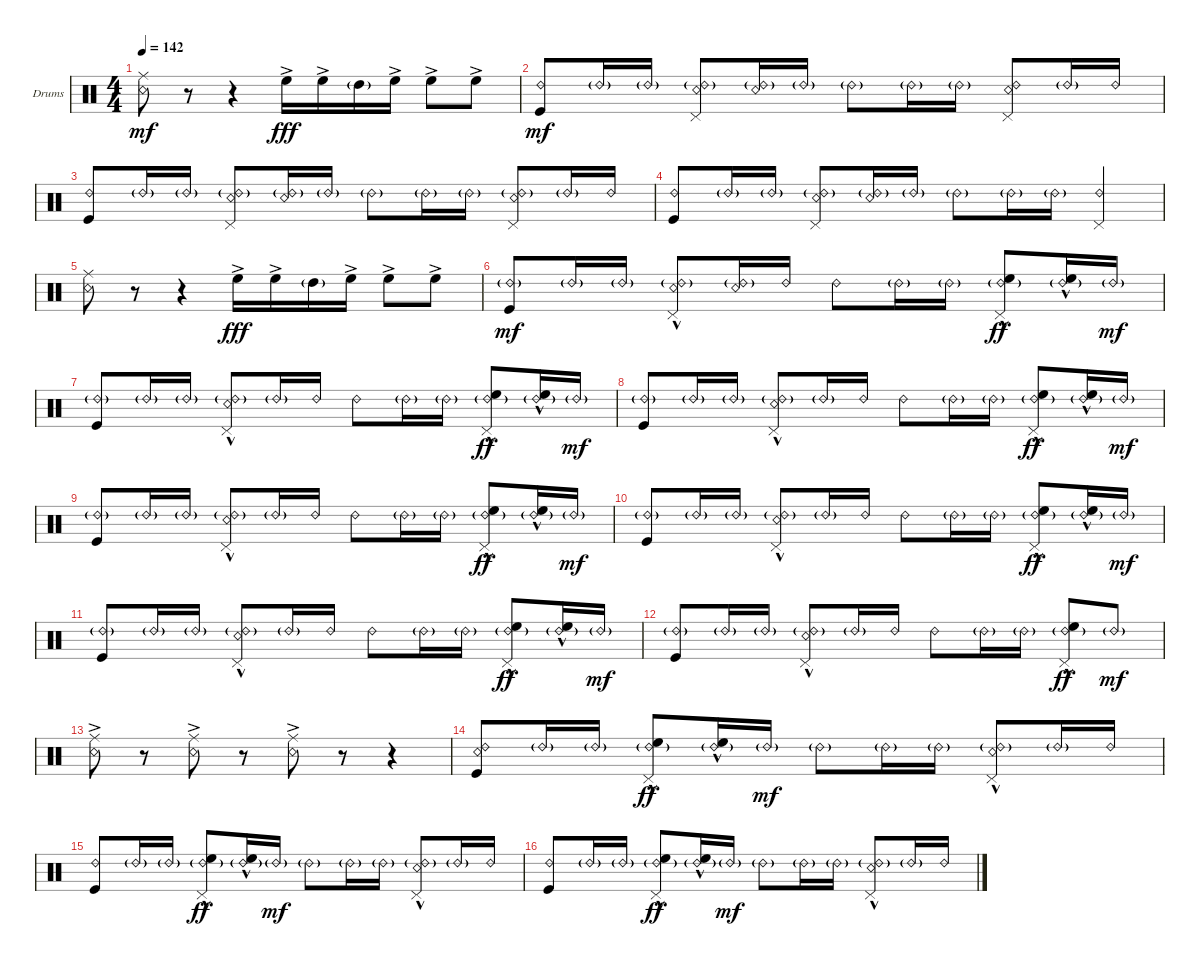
\defaultSystemsLayout 4
\bracketExtendMode groupsimilarinstruments
\firstSystemTrackNameOrientation horizontal
\otherSystemsTrackNameOrientation horizontal
\track ("Drums" "Drums") {instrument percussion}
\staff {score}
\articulation defaults
\ts (4 4)
\tempo 142
\clef neutral
\scale
0.333333
\ks c
("Snare (rim shot)" "Ride (middle)").8{dy mf} r.8 r.4 "High Floor Tom (hit)"{ac}.16{dy fff} "High Floor Tom (hit)"{ac}.16 "High Tom (hit)"{g}.16 "High Floor Tom (hit)"{ac}.16 "High Floor Tom (hit)"{ac}.8 "High Floor Tom (hit)"{ac}.8 |
\scale
0.333333 ("Ride (bell) 2" "Kick (hit)").8{dy mf} "Ride (bell) 2"{g}.16 "Ride (bell) 2"{g}.16 ("Ride (bell) 2"{g} "Snare (rim shot)" "Pedal Hi-Hat (hit)").8 ("Ride (bell) 2"{g} "Snare (rim shot)").16 "Ride (bell) 2"{g}.16 "Ride (bell) 2"{g}.8 "Ride (bell) 2"{g}.16 "Ride (bell) 2"{g}.16 ("Ride (bell) 2" "Snare (rim shot)" "Pedal Hi-Hat (hit)").8 "Ride (bell) 2"{g}.16 "Ride (bell) 2".16 |
\scale
0.333333 ("Ride (bell) 2" "Kick (hit)").8 "Ride (bell) 2"{g}.16 "Ride (bell) 2"{g}.16 ("Ride (bell) 2"{g} "Snare (rim shot)" "Pedal Hi-Hat (hit)").8 ("Ride (bell) 2"{g} "Snare (rim shot)").16 "Ride (bell) 2"{g}.16 "Ride (bell) 2"{g}.8 "Ride (bell) 2"{g}.16 "Ride (bell) 2"{g}.16 ("Ride (bell) 2"{g} "Snare (rim shot)" "Pedal Hi-Hat (hit)").8 "Ride (bell) 2"{g}.16 "Ride (bell) 2".16 |
\scale
0.333333 ("Ride (bell) 2" "Kick (hit)").8 "Ride (bell) 2"{g}.16 "Ride (bell) 2"{g}.16 ("Ride (bell) 2"{g} "Snare (rim shot)" "Pedal Hi-Hat (hit)").8 ("Ride (bell) 2"{g} "Snare (rim shot)").16 "Ride (bell) 2"{g}.16 "Ride (bell) 2"{g}.8 "Ride (bell) 2"{g}.16 "Ride (bell) 2"{g}.16 ("Ride (bell) 2" "Pedal Hi-Hat (hit)").4 |
\scale
0.333333 ("Snare (rim shot)" "Ride (middle)").8 r.8 r.4 "High Floor Tom (hit)"{ac}.16{dy fff} "High Floor Tom (hit)"{ac}.16 "High Tom (hit)"{g}.16 "High Floor Tom (hit)"{ac}.16 "High Floor Tom (hit)"{ac}.8 "High Floor Tom (hit)"{ac}.8 |
\scale
0.333333 ("Ride (bell) 2"{g} "Kick (hit)").8{dy mf} "Ride (bell) 2"{g}.16 "Ride (bell) 2"{g}.16 ("Ride (bell) 2"{g} "Snare (rim shot)"{hac} "Pedal Hi-Hat (hit)").8 ("Ride (bell) 2"{g} "Snare (rim shot)").16 "Ride (bell) 2".16 "Ride (bell) 2".8 "Ride (bell) 2"{g}.16 "Ride (bell) 2"{g}.16 ("Ride (bell) 2"{g} "High Floor Tom (hit)"{hac} "Pedal Hi-Hat (hit)").8{dy ff} ("Ride (bell) 2"{g} "High Floor Tom (hit)"{hac}).16 "Ride (bell) 2"{g}.16{dy mf} |
\scale
0.333333 ("Ride (bell) 2"{g} "Kick (hit)").8 "Ride (bell) 2"{g}.16 "Ride (bell) 2"{g}.16 ("Ride (bell) 2"{g} "Snare (rim shot)"{hac} "Pedal Hi-Hat (hit)").8 "Ride (bell) 2"{g}.16 "Ride (bell) 2".16 "Ride (bell) 2".8 "Ride (bell) 2"{g}.16 "Ride (bell) 2"{g}.16 ("Ride (bell) 2"{g} "High Floor Tom (hit)"{hac} "Pedal Hi-Hat (hit)").8{dy ff} ("Ride (bell) 2"{g} "High Floor Tom (hit)"{hac}).16 "Ride (bell) 2"{g}.16{dy mf} |
\scale
0.333333 ("Ride (bell) 2"{g} "Kick (hit)").8 "Ride (bell) 2"{g}.16 "Ride (bell) 2"{g}.16 ("Ride (bell) 2"{g} "Snare (rim shot)"{hac} "Pedal Hi-Hat (hit)").8 "Ride (bell) 2"{g}.16 "Ride (bell) 2".16 "Ride (bell) 2".8 "Ride (bell) 2"{g}.16 "Ride (bell) 2"{g}.16 ("Ride (bell) 2"{g} "High Floor Tom (hit)"{hac} "Pedal Hi-Hat (hit)").8{dy ff} ("Ride (bell) 2"{g} "High Floor Tom (hit)"{hac}).16 "Ride (bell) 2"{g}.16{dy mf} |
\scale
0.333333 ("Ride (bell) 2"{g} "Kick (hit)").8 "Ride (bell) 2"{g}.16 "Ride (bell) 2"{g}.16 ("Ride (bell) 2"{g} "Snare (rim shot)"{hac} "Pedal Hi-Hat (hit)").8 "Ride (bell) 2"{g}.16 "Ride (bell) 2".16 "Ride (bell) 2".8 "Ride (bell) 2"{g}.16 "Ride (bell) 2"{g}.16 ("Ride (bell) 2"{g} "High Floor Tom (hit)"{hac} "Pedal Hi-Hat (hit)").8{dy ff} ("Ride (bell) 2"{g} "High Floor Tom (hit)"{hac}).16 "Ride (bell) 2"{g}.16{dy mf} |
\scale
0.333333 ("Ride (bell) 2"{g} "Kick (hit)").8 "Ride (bell) 2"{g}.16 "Ride (bell) 2"{g}.16 ("Ride (bell) 2"{g} "Snare (rim shot)"{hac} "Pedal Hi-Hat (hit)").8 "Ride (bell) 2"{g}.16 "Ride (bell) 2".16 "Ride (bell) 2".8 "Ride (bell) 2"{g}.16 "Ride (bell) 2"{g}.16 ("Ride (bell) 2"{g} "High Floor Tom (hit)"{hac} "Pedal Hi-Hat (hit)").8{dy ff} ("Ride (bell) 2"{g} "High Floor Tom (hit)"{hac}).16 "Ride (bell) 2"{g}.16{dy mf} |
\scale
0.333333 ("Ride (bell) 2"{g} "Kick (hit)").8 "Ride (bell) 2"{g}.16 "Ride (bell) 2"{g}.16 ("Ride (bell) 2"{g} "Snare (rim shot)"{hac} "Pedal Hi-Hat (hit)").8 "Ride (bell) 2"{g}.16 "Ride (bell) 2".16 "Ride (bell) 2".8 "Ride (bell) 2"{g}.16 "Ride (bell) 2"{g}.16 ("Ride (bell) 2"{g} "High Floor Tom (hit)"{hac} "Pedal Hi-Hat (hit)").8{dy ff} ("Ride (bell) 2"{g} "High Floor Tom (hit)"{hac}).16 "Ride (bell) 2"{g}.16{dy mf} |
\scale
0.333333 ("Ride (bell) 2"{g} "Kick (hit)").8 "Ride (bell) 2"{g}.16 "Ride (bell) 2"{g}.16 ("Ride (bell) 2"{g} "Snare (rim shot)"{hac} "Pedal Hi-Hat (hit)").8 "Ride (bell) 2"{g}.16 "Ride (bell) 2".16 "Ride (bell) 2".8 "Ride (bell) 2"{g}.16 "Ride (bell) 2"{g}.16 ("Ride (bell) 2"{g} "High Floor Tom (hit)"{hac} "Pedal Hi-Hat (hit)").8{dy ff} "Ride (bell) 2"{g}.8{dy mf} |
\scale
0.333333 ("Snare (rim shot)"{ac} "Ride (middle)"{ac}).8 r.8 ("Snare (rim shot)"{ac} "Ride (middle)"{ac}).8 r.8 ("Snare (rim shot)"{ac} "Ride (middle)"{ac}).8 r.8 r.4 |
\scale
0.333333 ("Ride (bell) 2" "Kick (hit)" "Snare (rim shot)").8 "Ride (bell) 2"{g}.16 "Ride (bell) 2"{g}.16 ("Ride (bell) 2"{g} "High Floor Tom (hit)"{hac} "Pedal Hi-Hat (hit)").8{dy ff} ("Ride (bell) 2"{g} "High Floor Tom (hit)"{hac}).16 "Ride (bell) 2"{g}.16{dy mf} "Ride (bell) 2"{g}.8 "Ride (bell) 2"{g}.16 "Ride (bell) 2"{g}.16 ("Ride (bell) 2"{g} "Snare (rim shot)"{hac} "Pedal Hi-Hat (hit)").8 "Ride (bell) 2"{g}.16 "Ride (bell) 2".16 |
\scale
0.333333 ("Ride (bell) 2" "Kick (hit)").8 "Ride (bell) 2"{g}.16 "Ride (bell) 2"{g}.16 ("Ride (bell) 2"{g} "High Floor Tom (hit)"{hac} "Pedal Hi-Hat (hit)").8{dy ff} ("Ride (bell) 2"{g} "High Floor Tom (hit)"{hac}).16 "Ride (bell) 2"{g}.16{dy mf} "Ride (bell) 2"{g}.8 "Ride (bell) 2"{g}.16 "Ride (bell) 2"{g}.16 ("Ride (bell) 2"{g} "Snare (rim shot)"{hac} "Pedal Hi-Hat (hit)").8 "Ride (bell) 2"{g}.16 "Ride (bell) 2".16 |
\scale
0.333333 ("Ride (bell) 2" "Kick (hit)").8 "Ride (bell) 2"{g}.16 "Ride (bell) 2"{g}.16 ("Ride (bell) 2"{g} "High Floor Tom (hit)"{hac} "Pedal Hi-Hat (hit)").8{dy ff} ("Ride (bell) 2"{g} "High Floor Tom (hit)"{hac}).16 "Ride (bell) 2"{g}.16{dy mf} "Ride (bell) 2"{g}.8 "Ride (bell) 2"{g}.16 "Ride (bell) 2"{g}.16 ("Ride (bell) 2"{g} "Snare (rim shot)"{hac} "Pedal Hi-Hat (hit)").8 "Ride (bell) 2"{g}.16 "Ride (bell) 2".16
